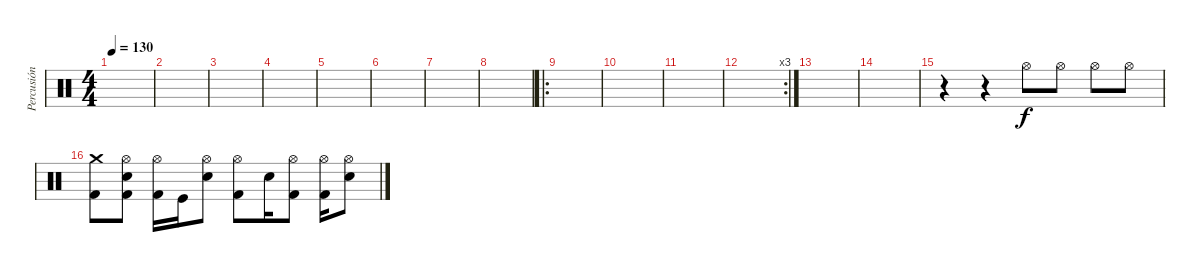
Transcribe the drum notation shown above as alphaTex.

\track ("Percusión" "Percusión") {instrument percussion}
\staff {score}
\articulation defaults
\ts (4 4)
\tempo 130
\clef neutral
\ks c
|
|
|
|
|
|
|
|
\ro
|
|
|
\rc 3
|
|
|
r.4 r.4 "Hi-Hat (open)".8 "Hi-Hat (open)".8 "Hi-Hat (open)".8 "Hi-Hat (open)".8 |
("Kick (hit) 2" "Crash medium (hit)").8 ("Kick (hit) 2" "Snare (hit) 2" "Hi-Hat (open)").8 ("Kick (hit) 2" "Hi-Hat (open)").16 "Kick (hit)".16 ("Snare (hit) 2" "Hi-Hat (open)").8 ("Kick (hit) 2" "Hi-Hat (open)").8 "Snare (hit) 2".16 ("Kick (hit) 2" "Hi-Hat (open)").8 ("Kick (hit) 2" "Hi-Hat (open)").16 ("Snare (hit) 2" "Hi-Hat (open)").8
